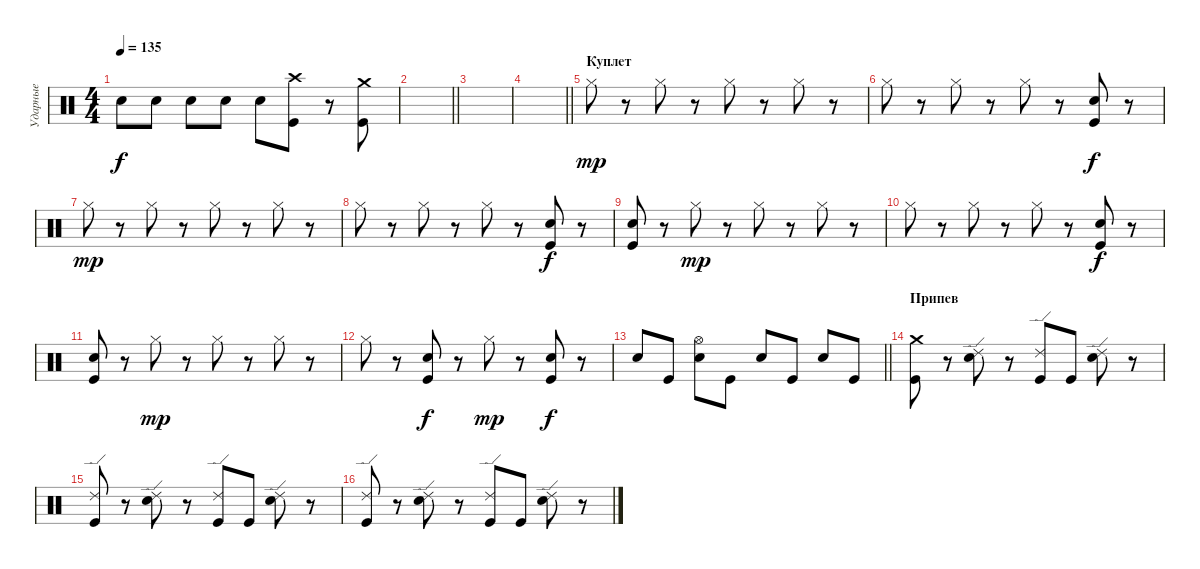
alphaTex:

\track ("Ударные" "Ударные") {instrument percussion}
\staff {score}
\articulation defaults
\ts (4 4)
\tempo 135
\clef neutral
\ks c "Electric Snare (hit)".8{dy f} "Electric Snare (hit)".8 "Electric Snare (hit)".8 "Electric Snare (hit)".8 "Electric Snare (hit)".8
("Crash high (hit)" "Kick (hit)").8 r.8 ("Crash medium (hit)" "Kick (hit)").8 |
\barLineRight lightlight
|
|
\barLineRight lightlight
|
\section ("" "Куплет")
"Hi-Hat (closed)".8{dy mp} r.8 "Hi-Hat (closed)".8 r.8 "Hi-Hat (closed)".8 r.8 "Hi-Hat (closed)".8 r.8 |
"Hi-Hat (closed)".8 r.8 "Hi-Hat (closed)".8 r.8 "Hi-Hat (closed)".8 r.8 ("Electric Snare (hit)" "Kick (hit)").8{dy f} r.8 |
"Hi-Hat (closed)".8{dy mp} r.8 "Hi-Hat (closed)".8 r.8 "Hi-Hat (closed)".8 r.8 "Hi-Hat (closed)".8 r.8 |
"Hi-Hat (closed)".8 r.8 "Hi-Hat (closed)".8 r.8 "Hi-Hat (closed)".8 r.8 ("Electric Snare (hit)" "Kick (hit)").8{dy f} r.8 |
("Electric Snare (hit)" "Kick (hit)").8 r.8 "Hi-Hat (closed)".8{dy mp} r.8 "Hi-Hat (closed)".8 r.8 "Hi-Hat (closed)".8 r.8 |
"Hi-Hat (closed)".8 r.8 "Hi-Hat (closed)".8 r.8 "Hi-Hat (closed)".8 r.8 ("Electric Snare (hit)" "Kick (hit)").8{dy f} r.8 |
("Electric Snare (hit)" "Kick (hit)").8 r.8 "Hi-Hat (closed)".8{dy mp} r.8 "Hi-Hat (closed)".8 r.8 "Hi-Hat (closed)".8 r.8 |
"Hi-Hat (closed)".8 r.8 ("Electric Snare (hit)" "Kick (hit)").8{dy f} r.8 "Hi-Hat (closed)".8{dy mp} r.8 ("Electric Snare (hit)" "Kick (hit)").8{dy f} r.8 |
\barLineRight lightlight "Electric Snare (hit)".8 "Kick (hit)".8
("Hi-Hat (open)" "Electric Snare (hit)").8 "Kick (hit)".8 "Electric Snare (hit)".8 "Kick (hit)".8 "Electric Snare (hit)".8 "Kick (hit)".8 |
\section ("" "Припев")
("Crash medium (hit)" "Kick (hit)").8 r.8 ("Ride (edge) 2" "Electric Snare (hit)").8 r.8 ("Ride (edge) 2" "Kick (hit)").8 "Kick (hit)".8 ("Ride (edge) 2" "Electric Snare (hit)").8 r.8 |
("Ride (edge) 2" "Kick (hit)").8 r.8 ("Ride (edge) 2" "Electric Snare (hit)").8 r.8 ("Ride (edge) 2" "Kick (hit)").8 "Kick (hit)".8 ("Ride (edge) 2" "Electric Snare (hit)").8 r.8 |
("Ride (edge) 2" "Kick (hit)").8 r.8 ("Ride (edge) 2" "Electric Snare (hit)").8 r.8 ("Ride (edge) 2" "Kick (hit)").8 "Kick (hit)".8 ("Ride (edge) 2" "Electric Snare (hit)").8 r.8
